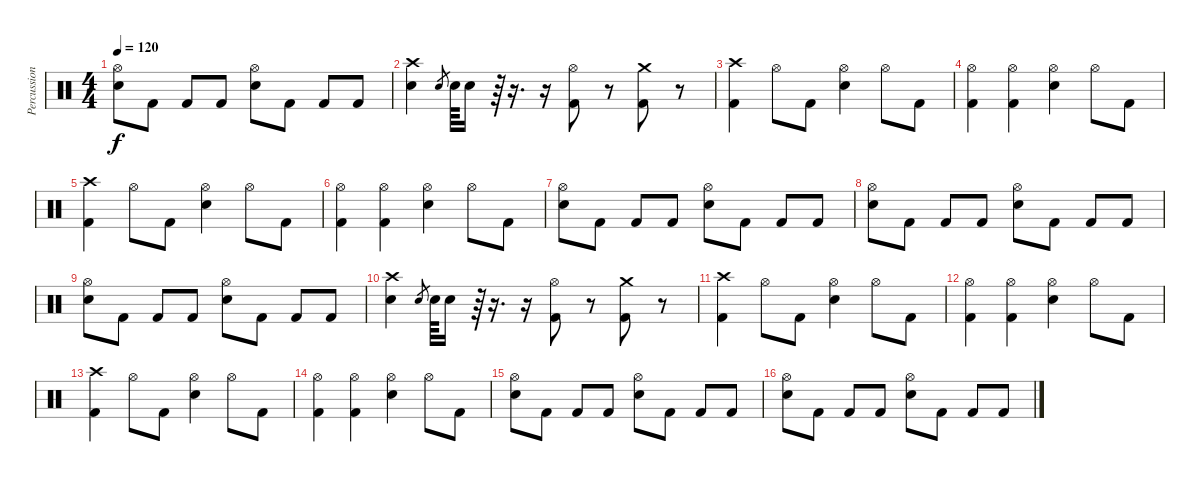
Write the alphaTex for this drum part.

\track ("Percussion" "Percussion") {instrument percussion}
\staff {score}
\articulation defaults
\ts (4 4)
\tempo 120
\clef neutral
\ks c
("Hi-Hat (open)" "Electric Snare (hit)").8{dy f} "Kick (hit) 2".8 "Kick (hit) 2".8 "Kick (hit) 2".8 ("Hi-Hat (open)" "Electric Snare (hit)").8 "Kick (hit) 2".8 "Kick (hit) 2".8 "Kick (hit) 2".8 |
("Crash high (hit)" "Electric Snare (hit)").4 "Electric Snare (hit)".8{gr} "Electric Snare (hit)".64 "Electric Snare (hit)".16 r.64 r.16{d} r.16 ("Hi-Hat (open)" "Kick (hit) 2").8 r.8 ("Crash medium (hit)" "Kick (hit) 2").8 r.8 |
("Crash high (hit)" "Kick (hit) 2").4 "Hi-Hat (open)".8 "Kick (hit) 2".8 ("Hi-Hat (open)" "Electric Snare (hit)").4 "Hi-Hat (open)".8 "Kick (hit) 2".8 |
("Hi-Hat (open)" "Kick (hit) 2").4 ("Hi-Hat (open)" "Kick (hit) 2").4 ("Hi-Hat (open)" "Electric Snare (hit)").4 "Hi-Hat (open)".8 "Kick (hit) 2".8 |
("Crash high (hit)" "Kick (hit) 2").4 "Hi-Hat (open)".8 "Kick (hit) 2".8 ("Hi-Hat (open)" "Electric Snare (hit)").4 "Hi-Hat (open)".8 "Kick (hit) 2".8 |
("Hi-Hat (open)" "Kick (hit) 2").4 ("Hi-Hat (open)" "Kick (hit) 2").4 ("Hi-Hat (open)" "Electric Snare (hit)").4 "Hi-Hat (open)".8 "Kick (hit) 2".8 |
("Hi-Hat (open)" "Electric Snare (hit)").8 "Kick (hit) 2".8 "Kick (hit) 2".8 "Kick (hit) 2".8 ("Hi-Hat (open)" "Electric Snare (hit)").8 "Kick (hit) 2".8 "Kick (hit) 2".8 "Kick (hit) 2".8 |
("Hi-Hat (open)" "Electric Snare (hit)").8 "Kick (hit) 2".8 "Kick (hit) 2".8 "Kick (hit) 2".8 ("Hi-Hat (open)" "Electric Snare (hit)").8 "Kick (hit) 2".8 "Kick (hit) 2".8 "Kick (hit) 2".8 |
("Hi-Hat (open)" "Electric Snare (hit)").8 "Kick (hit) 2".8 "Kick (hit) 2".8 "Kick (hit) 2".8 ("Hi-Hat (open)" "Electric Snare (hit)").8 "Kick (hit) 2".8 "Kick (hit) 2".8 "Kick (hit) 2".8 |
("Crash high (hit)" "Electric Snare (hit)").4 "Electric Snare (hit)".8{gr} "Electric Snare (hit)".64 "Electric Snare (hit)".16 r.64 r.16{d} r.16 ("Hi-Hat (open)" "Kick (hit) 2").8 r.8 ("Crash medium (hit)" "Kick (hit) 2").8 r.8 |
("Crash high (hit)" "Kick (hit) 2").4 "Hi-Hat (open)".8 "Kick (hit) 2".8 ("Hi-Hat (open)" "Electric Snare (hit)").4 "Hi-Hat (open)".8 "Kick (hit) 2".8 |
("Hi-Hat (open)" "Kick (hit) 2").4 ("Hi-Hat (open)" "Kick (hit) 2").4 ("Hi-Hat (open)" "Electric Snare (hit)").4 "Hi-Hat (open)".8 "Kick (hit) 2".8 |
("Crash high (hit)" "Kick (hit) 2").4 "Hi-Hat (open)".8 "Kick (hit) 2".8 ("Hi-Hat (open)" "Electric Snare (hit)").4 "Hi-Hat (open)".8 "Kick (hit) 2".8 |
("Hi-Hat (open)" "Kick (hit) 2").4 ("Hi-Hat (open)" "Kick (hit) 2").4 ("Hi-Hat (open)" "Electric Snare (hit)").4 "Hi-Hat (open)".8 "Kick (hit) 2".8 |
("Hi-Hat (open)" "Electric Snare (hit)").8 "Kick (hit) 2".8 "Kick (hit) 2".8 "Kick (hit) 2".8 ("Hi-Hat (open)" "Electric Snare (hit)").8 "Kick (hit) 2".8 "Kick (hit) 2".8 "Kick (hit) 2".8 |
("Hi-Hat (open)" "Electric Snare (hit)").8 "Kick (hit) 2".8 "Kick (hit) 2".8 "Kick (hit) 2".8 ("Hi-Hat (open)" "Electric Snare (hit)").8 "Kick (hit) 2".8 "Kick (hit) 2".8 "Kick (hit) 2".8
